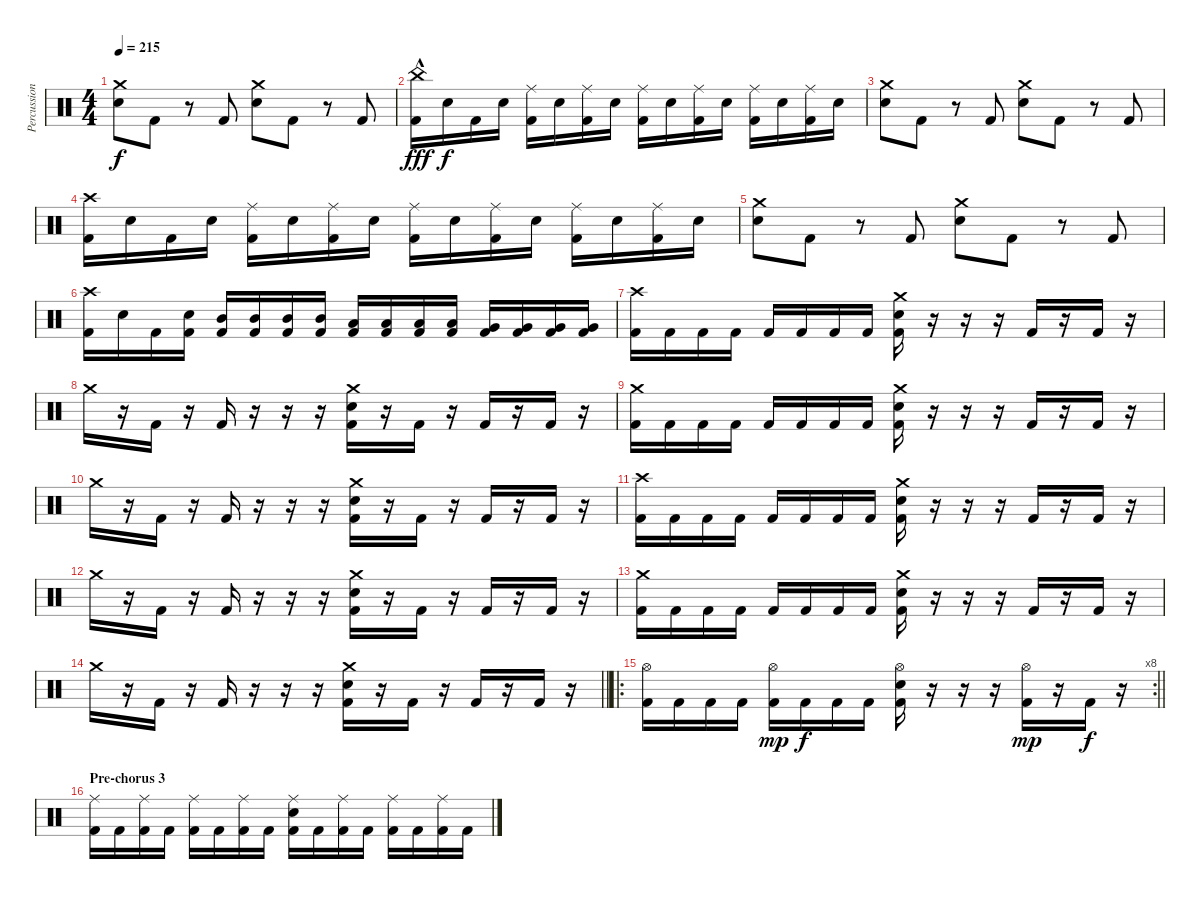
\track ("Percussion" "Percussion") {instrument percussion}
\staff {score}
\articulation defaults
\ts (4 4)
\tempo 215
\clef neutral
\ks c
("Crash medium (hit)" "Electric Snare (hit)").8{dy f} "Kick (hit) 2".8 r.8 "Kick (hit) 2".8 ("Crash medium (hit)" "Electric Snare (hit)").8 "Kick (hit) 2".8 r.8 "Kick (hit) 2".8 |
("China (hit)"{hac} "Kick (hit) 2").16{dy fff} "Electric Snare (hit)".16{dy f} "Kick (hit) 2".16 "Electric Snare (hit)".16 ("Ride (middle)" "Kick (hit) 2").16 "Electric Snare (hit)".16 ("Ride (middle)" "Kick (hit) 2").16 "Electric Snare (hit)".16 ("Ride (middle)" "Kick (hit) 2").16 "Electric Snare (hit)".16 ("Ride (middle)" "Kick (hit) 2").16 "Electric Snare (hit)".16 ("Ride (middle)" "Kick (hit) 2").16 "Electric Snare (hit)".16 ("Ride (middle)" "Kick (hit) 2").16 "Electric Snare (hit)".16 |
("Crash medium (hit)" "Electric Snare (hit)").8 "Kick (hit) 2".8 r.8 "Kick (hit) 2".8 ("Crash medium (hit)" "Electric Snare (hit)").8 "Kick (hit) 2".8 r.8 "Kick (hit) 2".8 |
("Crash high (hit)" "Kick (hit) 2").16 "Electric Snare (hit)".16 "Kick (hit) 2".16 "Electric Snare (hit)".16 ("Ride (middle)" "Kick (hit) 2").16 "Electric Snare (hit)".16 ("Ride (middle)" "Kick (hit) 2").16 "Electric Snare (hit)".16 ("Ride (middle)" "Kick (hit) 2").16 "Electric Snare (hit)".16 ("Ride (middle)" "Kick (hit) 2").16 "Electric Snare (hit)".16 ("Ride (middle)" "Kick (hit) 2").16 "Electric Snare (hit)".16 ("Ride (middle)" "Kick (hit) 2").16 "Electric Snare (hit)".16 |
("Crash medium (hit)" "Electric Snare (hit)").8 "Kick (hit) 2".8 r.8 "Kick (hit) 2".8 ("Crash medium (hit)" "Electric Snare (hit)").8 "Kick (hit) 2".8 r.8 "Kick (hit) 2".8 |
("Crash high (hit)" "Kick (hit) 2").16 "Electric Snare (hit)".16 "Kick (hit) 2".16 ("Electric Snare (hit)" "Kick (hit) 2").16 ("Mid Tom (hit)" "Kick (hit) 2").16 ("Mid Tom (hit)" "Kick (hit) 2").16 ("Mid Tom (hit)" "Kick (hit) 2").16 ("Mid Tom (hit)" "Kick (hit) 2").16 ("Low Tom (hit)" "Kick (hit) 2").16 ("Low Tom (hit)" "Kick (hit) 2").16 ("Low Tom (hit)" "Kick (hit) 2").16 ("Low Tom (hit)" "Kick (hit) 2").16 ("Very Low Tom (hit)" "Kick (hit) 2").16 ("Very Low Tom (hit)" "Kick (hit) 2").16 ("Very Low Tom (hit)" "Kick (hit) 2").16 ("Very Low Tom (hit)" "Kick (hit) 2").16 |
("Crash high (hit)" "Kick (hit) 2").16 "Kick (hit) 2".16 "Kick (hit) 2".16 "Kick (hit) 2".16 "Kick (hit) 2".16 "Kick (hit) 2".16 "Kick (hit) 2".16 "Kick (hit) 2".16 ("Crash medium (hit)" "Electric Snare (hit)" "Kick (hit) 2").16 r.16 r.16 r.16 "Kick (hit) 2".16 r.16 "Kick (hit) 2".16 r.16 |
"Crash medium (hit)".16 r.16 "Kick (hit) 2".16 r.16 "Kick (hit) 2".16 r.16 r.16 r.16 ("Crash medium (hit)" "Electric Snare (hit)" "Kick (hit) 2").16 r.16 "Kick (hit) 2".16 r.16 "Kick (hit) 2".16 r.16 "Kick (hit) 2".16 r.16 |
("Crash medium (hit)" "Kick (hit) 2").16 "Kick (hit) 2".16 "Kick (hit) 2".16 "Kick (hit) 2".16 "Kick (hit) 2".16 "Kick (hit) 2".16 "Kick (hit) 2".16 "Kick (hit) 2".16 ("Crash medium (hit)" "Electric Snare (hit)" "Kick (hit) 2").16 r.16 r.16 r.16 "Kick (hit) 2".16 r.16 "Kick (hit) 2".16 r.16 |
"Crash medium (hit)".16 r.16 "Kick (hit) 2".16 r.16 "Kick (hit) 2".16 r.16 r.16 r.16 ("Crash medium (hit)" "Electric Snare (hit)" "Kick (hit) 2").16 r.16 "Kick (hit) 2".16 r.16 "Kick (hit) 2".16 r.16 "Kick (hit) 2".16 r.16 |
("Crash high (hit)" "Kick (hit) 2").16 "Kick (hit) 2".16 "Kick (hit) 2".16 "Kick (hit) 2".16 "Kick (hit) 2".16 "Kick (hit) 2".16 "Kick (hit) 2".16 "Kick (hit) 2".16 ("Crash medium (hit)" "Electric Snare (hit)" "Kick (hit) 2").16 r.16 r.16 r.16 "Kick (hit) 2".16 r.16 "Kick (hit) 2".16 r.16 |
"Crash medium (hit)".16 r.16 "Kick (hit) 2".16 r.16 "Kick (hit) 2".16 r.16 r.16 r.16 ("Crash medium (hit)" "Electric Snare (hit)" "Kick (hit) 2").16 r.16 "Kick (hit) 2".16 r.16 "Kick (hit) 2".16 r.16 "Kick (hit) 2".16 r.16 |
("Crash medium (hit)" "Kick (hit) 2").16 "Kick (hit) 2".16 "Kick (hit) 2".16 "Kick (hit) 2".16 "Kick (hit) 2".16 "Kick (hit) 2".16 "Kick (hit) 2".16 "Kick (hit) 2".16 ("Crash medium (hit)" "Electric Snare (hit)" "Kick (hit) 2").16 r.16 r.16 r.16 "Kick (hit) 2".16 r.16 "Kick (hit) 2".16 r.16 |
\barLineRight lightlight "Crash medium (hit)".16
r.16 "Kick (hit) 2".16 r.16 "Kick (hit) 2".16 r.16 r.16 r.16 ("Crash medium (hit)" "Electric Snare (hit)" "Kick (hit) 2").16 r.16 "Kick (hit) 2".16 r.16 "Kick (hit) 2".16 r.16 "Kick (hit) 2".16 r.16 |
\ro
\rc 8
\barLineRight lightlight
("Hi-Hat (open)" "Kick (hit) 2").16 "Kick (hit) 2".16 "Kick (hit) 2".16 "Kick (hit) 2".16 ("Hi-Hat (open)" "Kick (hit) 2").16{dy mp} "Kick (hit) 2".16{dy f} "Kick (hit) 2".16 "Kick (hit) 2".16 ("Hi-Hat (open)" "Electric Snare (hit)" "Kick (hit) 2").16 r.16 r.16 r.16 ("Hi-Hat (open)" "Kick (hit) 2").16{dy mp} r.16 "Kick (hit) 2".16{dy f} r.16 |
\section ("" "Pre-chorus 3")
("Ride (middle)" "Kick (hit) 2").16 "Kick (hit) 2".16 ("Ride (middle)" "Kick (hit) 2").16 "Kick (hit) 2".16 ("Ride (middle)" "Kick (hit) 2").16 "Kick (hit) 2".16 ("Ride (middle)" "Kick (hit) 2").16 "Kick (hit) 2".16 ("Ride (middle)" "Electric Snare (hit)" "Kick (hit) 2").16 "Kick (hit) 2".16 ("Ride (middle)" "Kick (hit) 2").16 "Kick (hit) 2".16 ("Ride (middle)" "Kick (hit) 2").16 "Kick (hit) 2".16 ("Ride (middle)" "Kick (hit) 2").16 "Kick (hit) 2".16
